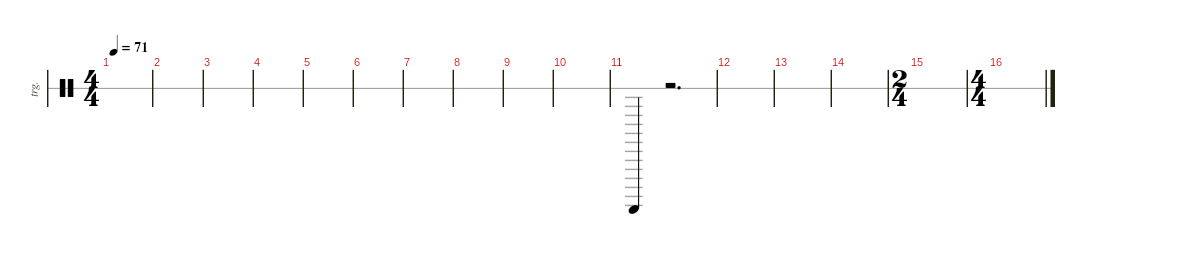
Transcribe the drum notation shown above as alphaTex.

\defaultSystemsLayout 4
\hideDynamics
\bracketExtendMode nobrackets
\track ("Triangle" "trg.") {instrument percussion}
\staff {score 1}
\articulation defaults
\ts (4 4)
\tempo 71
\clef neutral
\ks c
|
|
|
|
|
|
|
|
|
|
"Triangle (hit)".4 r.2{d} |
|
|
|
\ts (2 4)
\beaming (8 2 2)
|
\ts (4 4)
\beaming (8 2 2 2 2)
